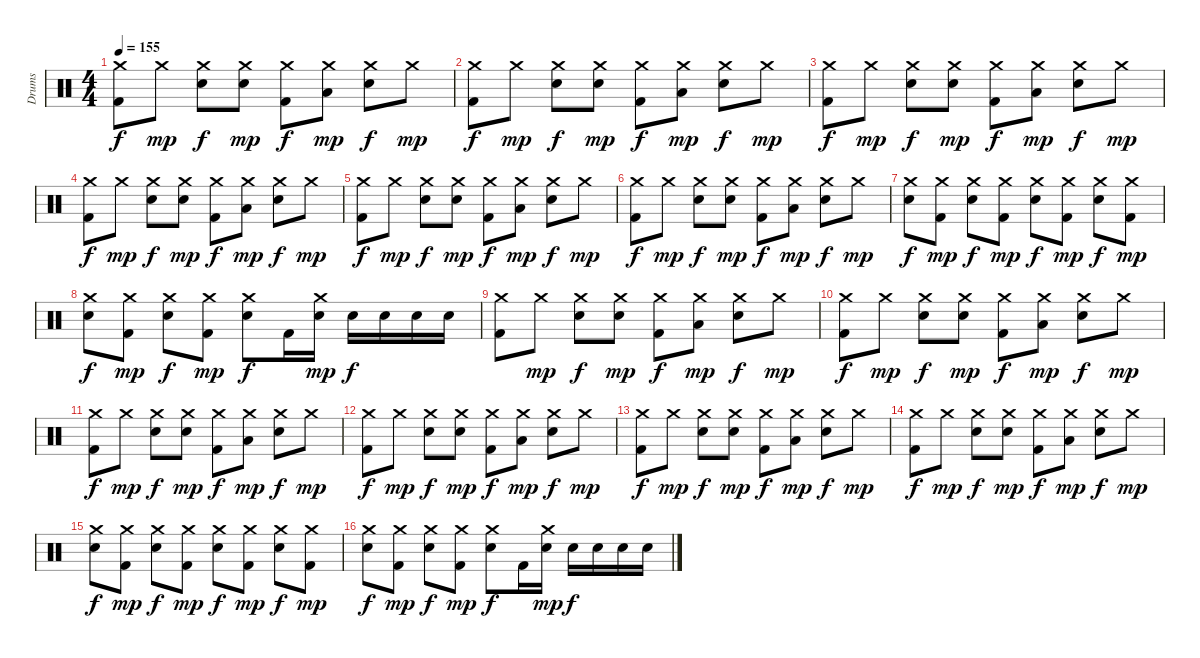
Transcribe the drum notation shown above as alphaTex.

\track ("Drums" "Drums") {instrument percussion}
\staff {score}
\articulation defaults
\ts (4 4)
\tempo 155
\clef neutral
\ks c
("Crash medium (hit)" "Kick (hit) 2").8{dy f} "Crash medium (hit)".8{dy mp} ("Crash medium (hit)" "Snare (hit) 2").8{dy f} ("Crash medium (hit)" "Snare (hit) 2").8{dy mp} ("Crash medium (hit)" "Kick (hit) 2").8{dy f} ("Crash medium (hit)" "Low Tom (hit)").8{dy mp} ("Crash medium (hit)" "Snare (hit) 2").8{dy f} "Crash medium (hit)".8{dy mp} |
("Crash medium (hit)" "Kick (hit) 2").8{dy f} "Crash medium (hit)".8{dy mp} ("Crash medium (hit)" "Snare (hit) 2").8{dy f} ("Crash medium (hit)" "Snare (hit) 2").8{dy mp} ("Crash medium (hit)" "Kick (hit) 2").8{dy f} ("Crash medium (hit)" "Low Tom (hit)").8{dy mp} ("Crash medium (hit)" "Snare (hit) 2").8{dy f} "Crash medium (hit)".8{dy mp} |
("Crash medium (hit)" "Kick (hit) 2").8{dy f} "Crash medium (hit)".8{dy mp} ("Crash medium (hit)" "Snare (hit) 2").8{dy f} ("Crash medium (hit)" "Snare (hit) 2").8{dy mp} ("Crash medium (hit)" "Kick (hit) 2").8{dy f} ("Crash medium (hit)" "Low Tom (hit)").8{dy mp} ("Crash medium (hit)" "Snare (hit) 2").8{dy f} "Crash medium (hit)".8{dy mp} |
("Crash medium (hit)" "Kick (hit) 2").8{dy f} "Crash medium (hit)".8{dy mp} ("Crash medium (hit)" "Snare (hit) 2").8{dy f} ("Crash medium (hit)" "Snare (hit) 2").8{dy mp} ("Crash medium (hit)" "Kick (hit) 2").8{dy f} ("Crash medium (hit)" "Low Tom (hit)").8{dy mp} ("Crash medium (hit)" "Snare (hit) 2").8{dy f} "Crash medium (hit)".8{dy mp} |
("Crash medium (hit)" "Kick (hit) 2").8{dy f} "Crash medium (hit)".8{dy mp} ("Crash medium (hit)" "Snare (hit) 2").8{dy f} ("Crash medium (hit)" "Snare (hit) 2").8{dy mp} ("Crash medium (hit)" "Kick (hit) 2").8{dy f} ("Crash medium (hit)" "Low Tom (hit)").8{dy mp} ("Crash medium (hit)" "Snare (hit) 2").8{dy f} "Crash medium (hit)".8{dy mp} |
("Crash medium (hit)" "Kick (hit) 2").8{dy f} "Crash medium (hit)".8{dy mp} ("Crash medium (hit)" "Snare (hit) 2").8{dy f} ("Crash medium (hit)" "Snare (hit) 2").8{dy mp} ("Crash medium (hit)" "Kick (hit) 2").8{dy f} ("Crash medium (hit)" "Low Tom (hit)").8{dy mp} ("Crash medium (hit)" "Snare (hit) 2").8{dy f} "Crash medium (hit)".8{dy mp} |
("Crash medium (hit)" "Snare (hit) 2").8{dy f} ("Crash medium (hit)" "Kick (hit) 2").8{dy mp} ("Crash medium (hit)" "Snare (hit) 2").8{dy f} ("Crash medium (hit)" "Kick (hit) 2").8{dy mp} ("Crash medium (hit)" "Snare (hit) 2").8{dy f} ("Crash medium (hit)" "Kick (hit) 2").8{dy mp} ("Crash medium (hit)" "Snare (hit) 2").8{dy f} ("Crash medium (hit)" "Kick (hit) 2").8{dy mp} |
("Crash medium (hit)" "Snare (hit) 2").8{dy f} ("Crash medium (hit)" "Kick (hit) 2").8{dy mp} ("Crash medium (hit)" "Snare (hit) 2").8{dy f} ("Crash medium (hit)" "Kick (hit) 2").8{dy mp} ("Crash medium (hit)" "Snare (hit) 2").8{dy f} "Kick (hit) 2".16 ("Crash medium (hit)" "Snare (hit) 2").16{dy mp} "Snare (hit) 2".16{dy f} "Snare (hit) 2".16 "Snare (hit) 2".16 "Snare (hit) 2".16 |
("Crash medium (hit)" "Kick (hit) 2").8 "Crash medium (hit)".8{dy mp} ("Crash medium (hit)" "Snare (hit) 2").8{dy f} ("Crash medium (hit)" "Snare (hit) 2").8{dy mp} ("Crash medium (hit)" "Kick (hit) 2").8{dy f} ("Crash medium (hit)" "Low Tom (hit)").8{dy mp} ("Crash medium (hit)" "Snare (hit) 2").8{dy f} "Crash medium (hit)".8{dy mp} |
("Crash medium (hit)" "Kick (hit) 2").8{dy f} "Crash medium (hit)".8{dy mp} ("Crash medium (hit)" "Snare (hit) 2").8{dy f} ("Crash medium (hit)" "Snare (hit) 2").8{dy mp} ("Crash medium (hit)" "Kick (hit) 2").8{dy f} ("Crash medium (hit)" "Low Tom (hit)").8{dy mp} ("Crash medium (hit)" "Snare (hit) 2").8{dy f} "Crash medium (hit)".8{dy mp} |
("Crash medium (hit)" "Kick (hit) 2").8{dy f} "Crash medium (hit)".8{dy mp} ("Crash medium (hit)" "Snare (hit) 2").8{dy f} ("Crash medium (hit)" "Snare (hit) 2").8{dy mp} ("Crash medium (hit)" "Kick (hit) 2").8{dy f} ("Crash medium (hit)" "Low Tom (hit)").8{dy mp} ("Crash medium (hit)" "Snare (hit) 2").8{dy f} "Crash medium (hit)".8{dy mp} |
("Crash medium (hit)" "Kick (hit) 2").8{dy f} "Crash medium (hit)".8{dy mp} ("Crash medium (hit)" "Snare (hit) 2").8{dy f} ("Crash medium (hit)" "Snare (hit) 2").8{dy mp} ("Crash medium (hit)" "Kick (hit) 2").8{dy f} ("Crash medium (hit)" "Low Tom (hit)").8{dy mp} ("Crash medium (hit)" "Snare (hit) 2").8{dy f} "Crash medium (hit)".8{dy mp} |
("Crash medium (hit)" "Kick (hit) 2").8{dy f} "Crash medium (hit)".8{dy mp} ("Crash medium (hit)" "Snare (hit) 2").8{dy f} ("Crash medium (hit)" "Snare (hit) 2").8{dy mp} ("Crash medium (hit)" "Kick (hit) 2").8{dy f} ("Crash medium (hit)" "Low Tom (hit)").8{dy mp} ("Crash medium (hit)" "Snare (hit) 2").8{dy f} "Crash medium (hit)".8{dy mp} |
("Crash medium (hit)" "Kick (hit) 2").8{dy f} "Crash medium (hit)".8{dy mp} ("Crash medium (hit)" "Snare (hit) 2").8{dy f} ("Crash medium (hit)" "Snare (hit) 2").8{dy mp} ("Crash medium (hit)" "Kick (hit) 2").8{dy f} ("Crash medium (hit)" "Low Tom (hit)").8{dy mp} ("Crash medium (hit)" "Snare (hit) 2").8{dy f} "Crash medium (hit)".8{dy mp} |
("Crash medium (hit)" "Snare (hit) 2").8{dy f} ("Crash medium (hit)" "Kick (hit) 2").8{dy mp} ("Crash medium (hit)" "Snare (hit) 2").8{dy f} ("Crash medium (hit)" "Kick (hit) 2").8{dy mp} ("Crash medium (hit)" "Snare (hit) 2").8{dy f} ("Crash medium (hit)" "Kick (hit) 2").8{dy mp} ("Crash medium (hit)" "Snare (hit) 2").8{dy f} ("Crash medium (hit)" "Kick (hit) 2").8{dy mp} |
("Crash medium (hit)" "Snare (hit) 2").8{dy f} ("Crash medium (hit)" "Kick (hit) 2").8{dy mp} ("Crash medium (hit)" "Snare (hit) 2").8{dy f} ("Crash medium (hit)" "Kick (hit) 2").8{dy mp} ("Crash medium (hit)" "Snare (hit) 2").8{dy f} "Kick (hit) 2".16 ("Crash medium (hit)" "Snare (hit) 2").16{dy mp} "Snare (hit) 2".16{dy f} "Snare (hit) 2".16 "Snare (hit) 2".16 "Snare (hit) 2".16
